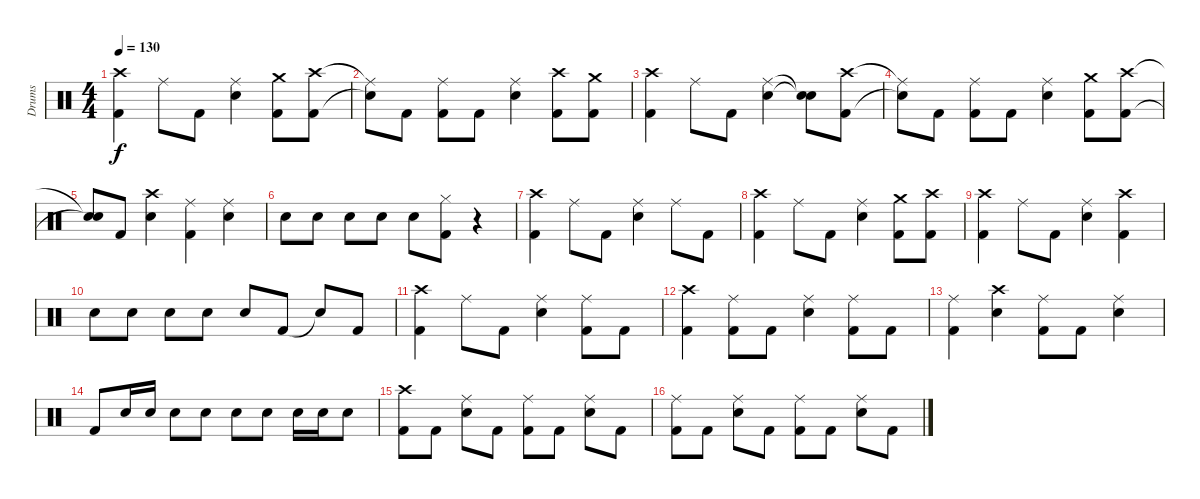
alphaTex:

\track ("Drums" "Drums") {instrument percussion}
\staff {score}
\articulation defaults
\ts (4 4)
\tempo 130
\clef neutral
\ks c
("Crash high (hit)" "Kick (hit) 2").4{dy f} "Ride (middle)".8 "Kick (hit) 2".8 ("Ride (middle)" "Electric Snare (hit)").4 ("Crash medium (hit)" "Kick (hit) 2").8 ("Crash high (hit)" "Kick (hit) 2").8 |
("Ride (middle)"{t} "Snare (hit)"{t}).8 "Kick (hit) 2".8 ("Ride (middle)" "Kick (hit) 2").8 "Kick (hit) 2".8 ("Ride (middle)" "Electric Snare (hit)").4 ("Crash high (hit)" "Kick (hit) 2").8 ("Crash medium (hit)" "Kick (hit) 2").8 |
("Crash high (hit)" "Kick (hit) 2").4 "Ride (middle)".8 "Kick (hit) 2".8 ("Ride (middle)" "Electric Snare (hit)").4 ("Snare (hit)"{t} "Snare (hit)"{t}).8 ("Crash high (hit)" "Kick (hit) 2").8 |
("Ride (middle)"{t} "Snare (hit)"{t}).8 "Kick (hit) 2".8 ("Ride (middle)" "Kick (hit) 2").8 "Kick (hit) 2".8 ("Ride (middle)" "Electric Snare (hit)").4 ("Crash medium (hit)" "Kick (hit) 2").8 ("Crash high (hit)" "Kick (hit) 2").8 |
("Snare (hit)"{t} "Snare (hit)"{t}).8 "Kick (hit) 2".8 ("Crash high (hit)" "Electric Snare (hit)").4 ("Ride (middle)" "Kick (hit) 2").4 ("Ride (middle)" "Electric Snare (hit)").4 |
"Electric Snare (hit)".8 "Electric Snare (hit)".8 "Electric Snare (hit)".8 "Electric Snare (hit)".8 "Electric Snare (hit)".8 ("Hi-Hat (closed)" "Kick (hit) 2").8 r.4 |
("Crash high (hit)" "Kick (hit) 2").4 "Ride (middle)".8 "Kick (hit) 2".8 ("Ride (middle)" "Electric Snare (hit)").4 "Ride (middle)".8 "Kick (hit) 2".8 |
("Crash high (hit)" "Kick (hit) 2").4 "Ride (middle)".8 "Kick (hit) 2".8 ("Ride (middle)" "Electric Snare (hit)").4 ("Crash medium (hit)" "Kick (hit) 2").8 ("Crash high (hit)" "Kick (hit) 2").8 |
("Crash high (hit)" "Kick (hit) 2").4 "Ride (middle)".8 "Kick (hit) 2".8 ("Ride (middle)" "Electric Snare (hit)").4 ("Crash high (hit)" "Kick (hit) 2").4 |
"Electric Snare (hit)".8 "Electric Snare (hit)".8 "Electric Snare (hit)".8 "Electric Snare (hit)".8 "Electric Snare (hit)".8 "Kick (hit) 2".8 "Snare (hit)"{t}.8 "Kick (hit) 2".8 |
("Crash high (hit)" "Kick (hit) 2").4 "Ride (middle)".8 "Kick (hit) 2".8 ("Ride (middle)" "Electric Snare (hit)").4 ("Ride (middle)" "Kick (hit) 2").8 "Kick (hit) 2".8 |
("Crash high (hit)" "Kick (hit) 2").4 ("Ride (middle)" "Kick (hit) 2").8 "Kick (hit) 2".8 ("Ride (middle)" "Electric Snare (hit)").4 ("Ride (middle)" "Kick (hit) 2").8 "Kick (hit) 2".8 |
("Ride (middle)" "Kick (hit) 2").4 ("Crash high (hit)" "Electric Snare (hit)").4 ("Ride (middle)" "Kick (hit) 2").8 "Kick (hit) 2".8 ("Ride (middle)" "Electric Snare (hit)").4 |
"Kick (hit) 2".8 "Electric Snare (hit)".16 "Electric Snare (hit)".16 "Electric Snare (hit)".8 "Electric Snare (hit)".8 "Electric Snare (hit)".8 "Electric Snare (hit)".8 "Electric Snare (hit)".16 "Electric Snare (hit)".16 "Electric Snare (hit)".8 |
("Crash high (hit)" "Kick (hit) 2").8 "Kick (hit) 2".8 ("Ride (middle)" "Electric Snare (hit)").8 "Kick (hit) 2".8 ("Ride (middle)" "Kick (hit) 2").8 "Kick (hit) 2".8 ("Ride (middle)" "Electric Snare (hit)").8 "Kick (hit) 2".8 |
("Ride (middle)" "Kick (hit) 2").8 "Kick (hit) 2".8 ("Ride (middle)" "Electric Snare (hit)").8 "Kick (hit) 2".8 ("Ride (middle)" "Kick (hit) 2").8 "Kick (hit) 2".8 ("Ride (middle)" "Electric Snare (hit)").8 "Kick (hit) 2".8
